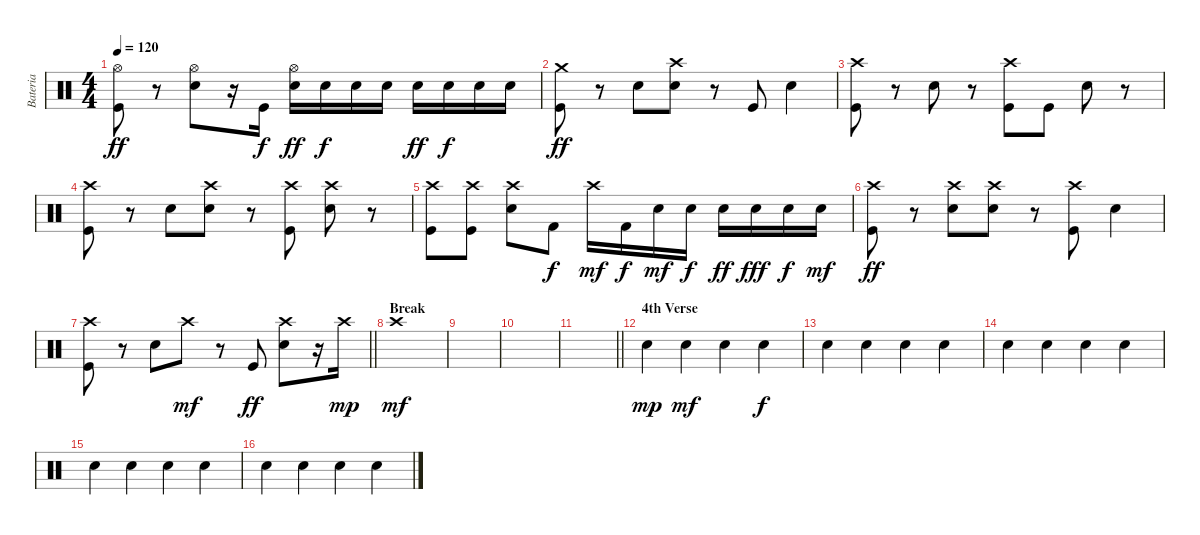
\track ("Bateria" "Bateria") {instrument percussion}
\staff {score}
\articulation defaults
\ts (4 4)
\tempo 120
\clef neutral
\ks c
("Hi-Hat (open)" "Kick (hit)").8{dy ff} r.8 ("Hi-Hat (open)" "Snare (hit) 2").8 r.16 "Kick (hit)".16{dy f} ("Hi-Hat (open)" "Snare (hit) 2").16{dy ff} "Snare (hit) 2".16{dy f} "Snare (hit) 2".16 "Snare (hit) 2".16 "Snare (hit) 2".16{dy ff} "Snare (hit) 2".16{dy f} "Snare (hit) 2".16 "Snare (hit) 2".16 |
("Crash medium (hit)" "Kick (hit)").8{dy ff} r.8 "Snare (hit) 2".8 ("Crash high (hit)" "Snare (hit) 2").8 r.8 "Kick (hit)".8 "Snare (hit) 2".4 |
("Crash high (hit)" "Kick (hit)").8 r.8 "Snare (hit) 2".8 r.8 ("Crash high (hit)" "Kick (hit)").8 "Kick (hit)".8 "Snare (hit) 2".8 r.8 |
("Crash high (hit)" "Kick (hit)").8 r.8 "Snare (hit) 2".8 ("Crash high (hit)" "Snare (hit) 2").8 r.8 ("Crash high (hit)" "Kick (hit)").8 ("Crash high (hit)" "Snare (hit) 2").8 r.8 |
("Crash high (hit)" "Kick (hit)").8 ("Crash high (hit)" "Kick (hit)").8 ("Crash high (hit)" "Snare (hit) 2").8 "Kick (hit) 2".8{dy f} "Crash high (hit)".16{dy mf} "Kick (hit) 2".16{dy f} "Snare (hit) 2".16{dy mf} "Snare (hit) 2".16{dy f} "Snare (hit) 2".16{dy ff} "Snare (hit) 2".16{dy fff} "Snare (hit) 2".16{dy f} "Snare (hit) 2".16{dy mf} |
("Crash high (hit)" "Kick (hit)").8{dy ff} r.8 ("Crash high (hit)" "Snare (hit) 2").8 ("Crash high (hit)" "Snare (hit) 2").8 r.8 ("Crash high (hit)" "Kick (hit)").8 "Snare (hit) 2".4 |
\barLineRight lightlight
("Crash high (hit)" "Kick (hit)").8 r.8 "Snare (hit) 2".8 "Crash high (hit)".8{dy mf} r.8 "Kick (hit)".8{dy ff} ("Crash high (hit)" "Snare (hit) 2").8 r.16 "Crash high (hit)".16{dy mp} |
\section ("" "Break")
"Crash high (hit)".1{dy mf} |
|
|
\barLineRight lightlight
|
\section ("" "4th Verse")
"Snare (hit) 2".4{dy mp} "Snare (hit) 2".4{dy mf} "Snare (hit) 2".4 "Snare (hit) 2".4{dy f} |
"Snare (hit) 2".4 "Snare (hit) 2".4 "Snare (hit) 2".4 "Snare (hit) 2".4 |
"Snare (hit) 2".4 "Snare (hit) 2".4 "Snare (hit) 2".4 "Snare (hit) 2".4 |
"Snare (hit) 2".4 "Snare (hit) 2".4 "Snare (hit) 2".4 "Snare (hit) 2".4 |
"Snare (hit) 2".4 "Snare (hit) 2".4 "Snare (hit) 2".4 "Snare (hit) 2".4
